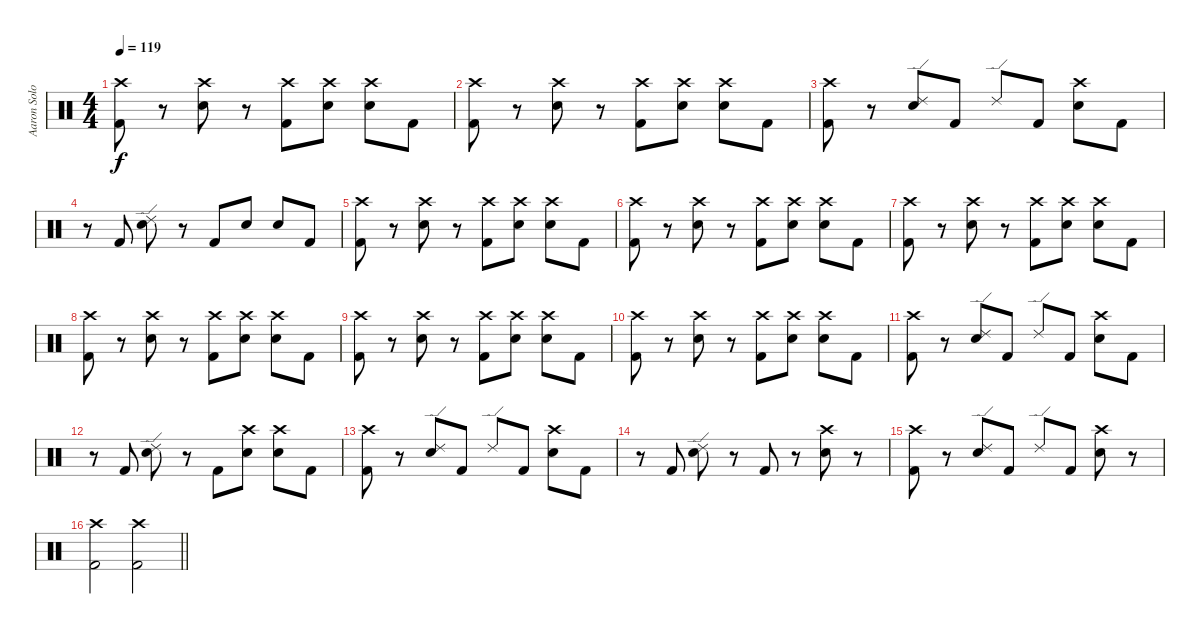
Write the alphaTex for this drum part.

\track ("Aaron Solowoniuk (Drums)" "Aaron Solo") {instrument percussion}
\staff {score}
\articulation defaults
\ts (4 4)
\tempo 119
\clef neutral
\ks c
("Crash high (hit)" "Kick (hit) 2").8{dy f} r.8 ("Crash high (hit)" "Electric Snare (hit)").8 r.8 ("Crash high (hit)" "Kick (hit) 2").8 ("Crash high (hit)" "Electric Snare (hit)").8 ("Crash high (hit)" "Electric Snare (hit)").8 "Kick (hit) 2".8 |
("Crash high (hit)" "Kick (hit) 2").8 r.8 ("Crash high (hit)" "Electric Snare (hit)").8 r.8 ("Crash high (hit)" "Kick (hit) 2").8 ("Crash high (hit)" "Electric Snare (hit)").8 ("Crash high (hit)" "Electric Snare (hit)").8 "Kick (hit) 2".8 |
("Crash high (hit)" "Kick (hit) 2").8 r.8 ("Ride (edge) 2" "Electric Snare (hit)").8 "Kick (hit) 2".8 "Ride (edge) 2".8 "Kick (hit) 2".8 ("Crash high (hit)" "Electric Snare (hit)").8 "Kick (hit) 2".8 |
r.8 "Kick (hit) 2".8 ("Ride (edge) 2" "Electric Snare (hit)").8 r.8 "Kick (hit) 2".8 "Electric Snare (hit)".8 "Electric Snare (hit)".8 "Kick (hit) 2".8 |
("Crash high (hit)" "Kick (hit) 2").8 r.8 ("Crash high (hit)" "Electric Snare (hit)").8 r.8 ("Crash high (hit)" "Kick (hit) 2").8 ("Crash high (hit)" "Electric Snare (hit)").8 ("Crash high (hit)" "Electric Snare (hit)").8 "Kick (hit) 2".8 |
("Crash high (hit)" "Kick (hit) 2").8 r.8 ("Crash high (hit)" "Electric Snare (hit)").8 r.8 ("Crash high (hit)" "Kick (hit) 2").8 ("Crash high (hit)" "Electric Snare (hit)").8 ("Crash high (hit)" "Electric Snare (hit)").8 "Kick (hit) 2".8 |
("Crash high (hit)" "Kick (hit) 2").8 r.8 ("Crash high (hit)" "Electric Snare (hit)").8 r.8 ("Crash high (hit)" "Kick (hit) 2").8 ("Crash high (hit)" "Electric Snare (hit)").8 ("Crash high (hit)" "Electric Snare (hit)").8 "Kick (hit) 2".8 |
("Crash high (hit)" "Kick (hit) 2").8 r.8 ("Crash high (hit)" "Electric Snare (hit)").8 r.8 ("Crash high (hit)" "Kick (hit) 2").8 ("Crash high (hit)" "Electric Snare (hit)").8 ("Crash high (hit)" "Electric Snare (hit)").8 "Kick (hit) 2".8 |
("Crash high (hit)" "Kick (hit) 2").8 r.8 ("Crash high (hit)" "Electric Snare (hit)").8 r.8 ("Crash high (hit)" "Kick (hit) 2").8 ("Crash high (hit)" "Electric Snare (hit)").8 ("Crash high (hit)" "Electric Snare (hit)").8 "Kick (hit) 2".8 |
("Crash high (hit)" "Kick (hit) 2").8 r.8 ("Crash high (hit)" "Electric Snare (hit)").8 r.8 ("Crash high (hit)" "Kick (hit) 2").8 ("Crash high (hit)" "Electric Snare (hit)").8 ("Crash high (hit)" "Electric Snare (hit)").8 "Kick (hit) 2".8 |
("Crash high (hit)" "Kick (hit) 2").8 r.8 ("Ride (edge) 2" "Electric Snare (hit)").8 "Kick (hit) 2".8 "Ride (edge) 2".8 "Kick (hit) 2".8 ("Crash high (hit)" "Electric Snare (hit)").8 "Kick (hit) 2".8 |
r.8 "Kick (hit) 2".8 ("Ride (edge) 2" "Electric Snare (hit)").8 r.8 "Kick (hit) 2".8 ("Crash high (hit)" "Electric Snare (hit)").8 ("Crash high (hit)" "Electric Snare (hit)").8 "Kick (hit) 2".8 |
("Crash high (hit)" "Kick (hit) 2").8 r.8 ("Ride (edge) 2" "Electric Snare (hit)").8 "Kick (hit) 2".8 "Ride (edge) 2".8 "Kick (hit) 2".8 ("Crash high (hit)" "Electric Snare (hit)").8 "Kick (hit) 2".8 |
r.8 "Kick (hit) 2".8 ("Ride (edge) 2" "Electric Snare (hit)").8 r.8 "Kick (hit) 2".8 r.8 ("Crash high (hit)" "Electric Snare (hit)").8 r.8 |
("Crash high (hit)" "Kick (hit) 2").8 r.8 ("Ride (edge) 2" "Electric Snare (hit)").8 "Kick (hit) 2".8 "Ride (edge) 2".8 "Kick (hit) 2".8 ("Crash high (hit)" "Electric Snare (hit)").8 r.8 |
\barLineRight lightlight
("Crash high (hit)" "Kick (hit) 2").2 ("Crash high (hit)" "Kick (hit) 2").2
